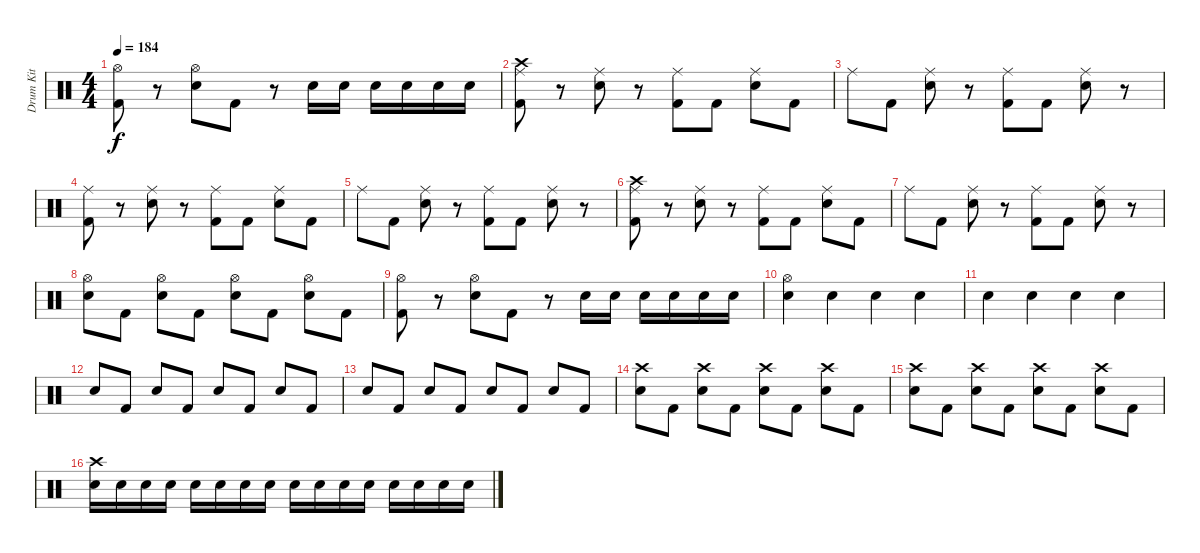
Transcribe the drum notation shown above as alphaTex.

\track ("Drum Kit" "Drum Kit") {instrument percussion}
\staff {score}
\articulation defaults
\ts (4 4)
\tempo 184
\clef neutral
\ks c
("Hi-Hat (open)" "Kick (hit) 2").8{dy f} r.8 ("Hi-Hat (open)" "Snare (hit) 2").8 "Kick (hit) 2".8 r.8 "Snare (hit) 2".16 "Snare (hit) 2".16 "Snare (hit) 2".16 "Snare (hit) 2".16 "Snare (hit) 2".16 "Snare (hit) 2".16 |
("Crash high (hit)" "Ride (middle)" "Kick (hit) 2").8 r.8 ("Ride (middle)" "Snare (hit) 2").8 r.8 ("Ride (middle)" "Kick (hit) 2").8 "Kick (hit) 2".8 ("Ride (middle)" "Snare (hit) 2").8 "Kick (hit) 2".8 |
"Ride (middle)".8 "Kick (hit) 2".8 ("Ride (middle)" "Snare (hit) 2").8 r.8 ("Ride (middle)" "Kick (hit) 2").8 "Kick (hit) 2".8 ("Ride (middle)" "Snare (hit) 2").8 r.8 |
("Ride (middle)" "Kick (hit) 2").8 r.8 ("Ride (middle)" "Snare (hit) 2").8 r.8 ("Ride (middle)" "Kick (hit) 2").8 "Kick (hit) 2".8 ("Ride (middle)" "Snare (hit) 2").8 "Kick (hit) 2".8 |
"Ride (middle)".8 "Kick (hit) 2".8 ("Ride (middle)" "Snare (hit) 2").8 r.8 ("Ride (middle)" "Kick (hit) 2").8 "Kick (hit) 2".8 ("Ride (middle)" "Snare (hit) 2").8 r.8 |
("Crash high (hit)" "Ride (middle)" "Kick (hit) 2").8 r.8 ("Ride (middle)" "Snare (hit) 2").8 r.8 ("Ride (middle)" "Kick (hit) 2").8 "Kick (hit) 2".8 ("Ride (middle)" "Snare (hit) 2").8 "Kick (hit) 2".8 |
"Ride (middle)".8 "Kick (hit) 2".8 ("Ride (middle)" "Snare (hit) 2").8 r.8 ("Ride (middle)" "Kick (hit) 2").8 "Kick (hit) 2".8 ("Ride (middle)" "Snare (hit) 2").8 r.8 |
("Hi-Hat (open)" "Snare (hit) 2").8 "Kick (hit) 2".8 ("Hi-Hat (open)" "Snare (hit) 2").8 "Kick (hit) 2".8 ("Hi-Hat (open)" "Snare (hit) 2").8 "Kick (hit) 2".8 ("Hi-Hat (open)" "Snare (hit) 2").8 "Kick (hit) 2".8 |
("Hi-Hat (open)" "Kick (hit) 2").8 r.8 ("Hi-Hat (open)" "Snare (hit) 2").8 "Kick (hit) 2".8 r.8 "Snare (hit) 2".16 "Snare (hit) 2".16 "Snare (hit) 2".16 "Snare (hit) 2".16 "Snare (hit) 2".16 "Snare (hit) 2".16 |
("Hi-Hat (open)" "Snare (hit) 2").4 "Snare (hit) 2".4 "Snare (hit) 2".4 "Snare (hit) 2".4 |
"Snare (hit) 2".4 "Snare (hit) 2".4 "Snare (hit) 2".4 "Snare (hit) 2".4 |
"Snare (hit) 2".8 "Kick (hit) 2".8 "Snare (hit) 2".8 "Kick (hit) 2".8 "Snare (hit) 2".8 "Kick (hit) 2".8 "Snare (hit) 2".8 "Kick (hit) 2".8 |
"Snare (hit) 2".8 "Kick (hit) 2".8 "Snare (hit) 2".8 "Kick (hit) 2".8 "Snare (hit) 2".8 "Kick (hit) 2".8 "Snare (hit) 2".8 "Kick (hit) 2".8 |
("Crash high (hit)" "Snare (hit) 2").8 "Kick (hit) 2".8 ("Crash high (hit)" "Snare (hit) 2").8 "Kick (hit) 2".8 ("Crash high (hit)" "Snare (hit) 2").8 "Kick (hit) 2".8 ("Crash high (hit)" "Snare (hit) 2").8 "Kick (hit) 2".8 |
("Crash high (hit)" "Snare (hit) 2").8 "Kick (hit) 2".8 ("Crash high (hit)" "Snare (hit) 2").8 "Kick (hit) 2".8 ("Crash high (hit)" "Snare (hit) 2").8 "Kick (hit) 2".8 ("Crash high (hit)" "Snare (hit) 2").8 "Kick (hit) 2".8 |
("Crash high (hit)" "Snare (hit) 2").16 "Snare (hit) 2".16 "Snare (hit) 2".16 "Snare (hit) 2".16 "Snare (hit) 2".16 "Snare (hit) 2".16 "Snare (hit) 2".16 "Snare (hit) 2".16 "Snare (hit) 2".16 "Snare (hit) 2".16 "Snare (hit) 2".16 "Snare (hit) 2".16 "Snare (hit) 2".16 "Snare (hit) 2".16 "Snare (hit) 2".16 "Snare (hit) 2".16
